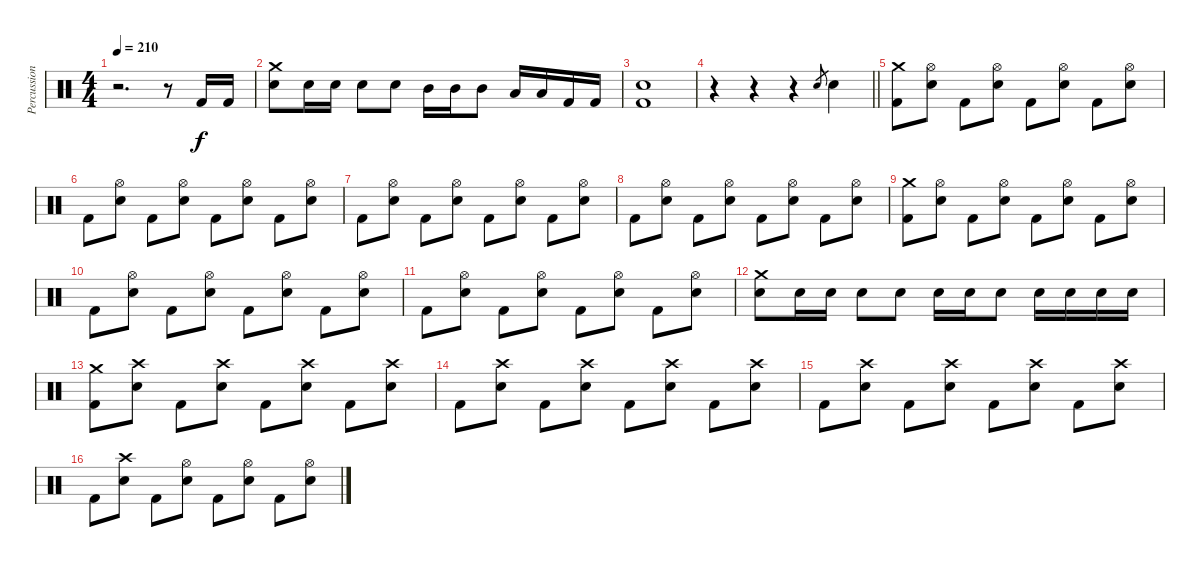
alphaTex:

\track ("Percussion" "Percussion") {instrument percussion}
\staff {score}
\articulation defaults
\ts (4 4)
\tempo 210
\clef neutral
\ks c
r.2{d dy f} r.8 "Kick (hit) 2".16 "Kick (hit) 2".16 |
("Crash medium (hit)" "Snare (hit) 2").8 "Snare (hit) 2".16 "Snare (hit) 2".16 "Snare (hit) 2".8 "Snare (hit) 2".8 "Mid Tom (hit)".16 "Mid Tom (hit)".16 "Mid Tom (hit)".8 "Low Tom (hit)".16 "Low Tom (hit)".16 "Kick (hit) 2".16 "Kick (hit) 2".16 |
("Snare (hit) 2" "Kick (hit) 2").1 |
\barLineRight lightlight
r.4 r.4 r.4 "Snare (hit) 2".8{gr} "Snare (hit) 2".4 |
("Crash medium (hit)" "Kick (hit) 2").8 ("Hi-Hat (open)" "Snare (hit) 2").8 "Kick (hit) 2".8 ("Hi-Hat (open)" "Snare (hit) 2").8 "Kick (hit) 2".8 ("Hi-Hat (open)" "Snare (hit) 2").8 "Kick (hit) 2".8 ("Hi-Hat (open)" "Snare (hit) 2").8 |
"Kick (hit) 2".8 ("Hi-Hat (open)" "Snare (hit) 2").8 "Kick (hit) 2".8 ("Hi-Hat (open)" "Snare (hit) 2").8 "Kick (hit) 2".8 ("Hi-Hat (open)" "Snare (hit) 2").8 "Kick (hit) 2".8 ("Hi-Hat (open)" "Snare (hit) 2").8 |
"Kick (hit) 2".8 ("Hi-Hat (open)" "Snare (hit) 2").8 "Kick (hit) 2".8 ("Hi-Hat (open)" "Snare (hit) 2").8 "Kick (hit) 2".8 ("Hi-Hat (open)" "Snare (hit) 2").8 "Kick (hit) 2".8 ("Hi-Hat (open)" "Snare (hit) 2").8 |
"Kick (hit) 2".8 ("Hi-Hat (open)" "Snare (hit) 2").8 "Kick (hit) 2".8 ("Hi-Hat (open)" "Snare (hit) 2").8 "Kick (hit) 2".8 ("Hi-Hat (open)" "Snare (hit) 2").8 "Kick (hit) 2".8 ("Hi-Hat (open)" "Snare (hit) 2").8 |
("Crash medium (hit)" "Kick (hit) 2").8 ("Hi-Hat (open)" "Snare (hit) 2").8 "Kick (hit) 2".8 ("Hi-Hat (open)" "Snare (hit) 2").8 "Kick (hit) 2".8 ("Hi-Hat (open)" "Snare (hit) 2").8 "Kick (hit) 2".8 ("Hi-Hat (open)" "Snare (hit) 2").8 |
"Kick (hit) 2".8 ("Hi-Hat (open)" "Snare (hit) 2").8 "Kick (hit) 2".8 ("Hi-Hat (open)" "Snare (hit) 2").8 "Kick (hit) 2".8 ("Hi-Hat (open)" "Snare (hit) 2").8 "Kick (hit) 2".8 ("Hi-Hat (open)" "Snare (hit) 2").8 |
"Kick (hit) 2".8 ("Hi-Hat (open)" "Snare (hit) 2").8 "Kick (hit) 2".8 ("Hi-Hat (open)" "Snare (hit) 2").8 "Kick (hit) 2".8 ("Hi-Hat (open)" "Snare (hit) 2").8 "Kick (hit) 2".8 ("Hi-Hat (open)" "Snare (hit) 2").8 |
("Crash medium (hit)" "Snare (hit) 2").8 "Snare (hit) 2".16 "Snare (hit) 2".16 "Snare (hit) 2".8 "Snare (hit) 2".8 "Snare (hit) 2".16 "Snare (hit) 2".16 "Snare (hit) 2".8 "Snare (hit) 2".16 "Snare (hit) 2".16 "Snare (hit) 2".16 "Snare (hit) 2".16 |
("Crash medium (hit)" "Kick (hit) 2").8 ("Crash high (hit)" "Snare (hit) 2").8 "Kick (hit) 2".8 ("Crash high (hit)" "Snare (hit) 2").8 "Kick (hit) 2".8 ("Crash high (hit)" "Snare (hit) 2").8 "Kick (hit) 2".8 ("Crash high (hit)" "Snare (hit) 2").8 |
"Kick (hit) 2".8 ("Crash high (hit)" "Snare (hit) 2").8 "Kick (hit) 2".8 ("Crash high (hit)" "Snare (hit) 2").8 "Kick (hit) 2".8 ("Crash high (hit)" "Snare (hit) 2").8 "Kick (hit) 2".8 ("Crash high (hit)" "Snare (hit) 2").8 |
"Kick (hit) 2".8 ("Crash high (hit)" "Snare (hit) 2").8 "Kick (hit) 2".8 ("Crash high (hit)" "Snare (hit) 2").8 "Kick (hit) 2".8 ("Crash high (hit)" "Snare (hit) 2").8 "Kick (hit) 2".8 ("Crash high (hit)" "Snare (hit) 2").8 |
"Kick (hit) 2".8 ("Crash high (hit)" "Snare (hit) 2").8 "Kick (hit) 2".8 ("Hi-Hat (open)" "Snare (hit) 2").8 "Kick (hit) 2".8 ("Hi-Hat (open)" "Snare (hit) 2").8 "Kick (hit) 2".8 ("Hi-Hat (open)" "Snare (hit) 2").8
